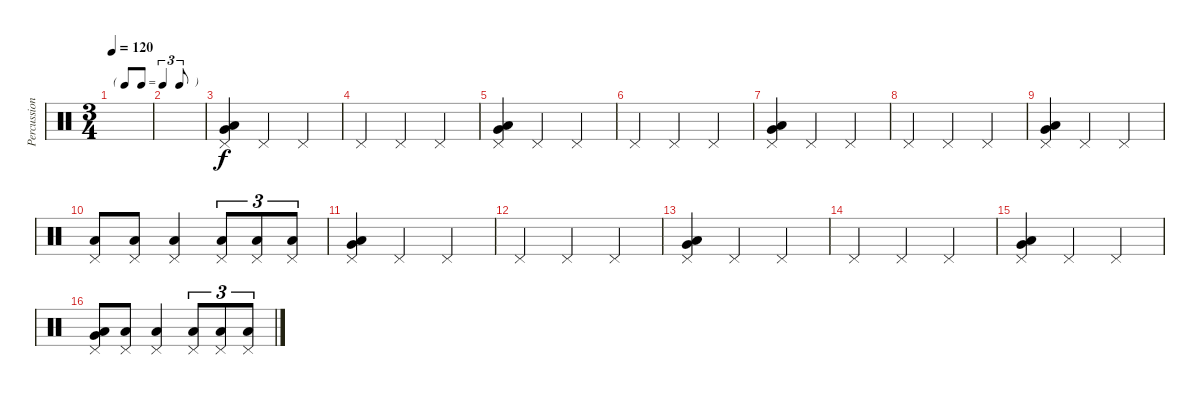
\track ("Percussions" "Percussion") {instrument percussion}
\staff {score}
\articulation defaults
\ts (3 4)
\tf triplet8th
\tempo 120
\clef neutral
\ks c
|
|
("Pedal Hi-Hat (hit)" "Low Tom (hit)" "Very Low Tom (hit)").4 "Pedal Hi-Hat (hit)".4 "Pedal Hi-Hat (hit)".4 |
"Pedal Hi-Hat (hit)".4 "Pedal Hi-Hat (hit)".4 "Pedal Hi-Hat (hit)".4 |
("Pedal Hi-Hat (hit)" "Low Tom (hit)" "Very Low Tom (hit)").4 "Pedal Hi-Hat (hit)".4 "Pedal Hi-Hat (hit)".4 |
"Pedal Hi-Hat (hit)".4 "Pedal Hi-Hat (hit)".4 "Pedal Hi-Hat (hit)".4 |
("Pedal Hi-Hat (hit)" "Low Tom (hit)" "Very Low Tom (hit)").4 "Pedal Hi-Hat (hit)".4 "Pedal Hi-Hat (hit)".4 |
"Pedal Hi-Hat (hit)".4 "Pedal Hi-Hat (hit)".4 "Pedal Hi-Hat (hit)".4 |
("Pedal Hi-Hat (hit)" "Low Tom (hit)" "Very Low Tom (hit)").4 "Pedal Hi-Hat (hit)".4 "Pedal Hi-Hat (hit)".4 |
("Pedal Hi-Hat (hit)" "Low Tom (hit)").8 ("Pedal Hi-Hat (hit)" "Low Tom (hit)").8 ("Pedal Hi-Hat (hit)" "Low Tom (hit)").4 ("Pedal Hi-Hat (hit)" "Low Tom (hit)").8{tu (3 2)} ("Pedal Hi-Hat (hit)" "Low Tom (hit)").8{tu (3 2)} ("Pedal Hi-Hat (hit)" "Low Tom (hit)").8{tu (3 2)} |
("Pedal Hi-Hat (hit)" "Low Tom (hit)" "Very Low Tom (hit)").4 "Pedal Hi-Hat (hit)".4 "Pedal Hi-Hat (hit)".4 |
"Pedal Hi-Hat (hit)".4 "Pedal Hi-Hat (hit)".4 "Pedal Hi-Hat (hit)".4 |
("Pedal Hi-Hat (hit)" "Low Tom (hit)" "Very Low Tom (hit)").4 "Pedal Hi-Hat (hit)".4 "Pedal Hi-Hat (hit)".4 |
"Pedal Hi-Hat (hit)".4 "Pedal Hi-Hat (hit)".4 "Pedal Hi-Hat (hit)".4 |
("Pedal Hi-Hat (hit)" "Low Tom (hit)" "Very Low Tom (hit)").4 "Pedal Hi-Hat (hit)".4 "Pedal Hi-Hat (hit)".4 |
("Pedal Hi-Hat (hit)" "Low Tom (hit)" "Very Low Tom (hit)").8 ("Pedal Hi-Hat (hit)" "Low Tom (hit)").8 ("Pedal Hi-Hat (hit)" "Low Tom (hit)").4 ("Pedal Hi-Hat (hit)" "Low Tom (hit)").8{tu (3 2)} ("Pedal Hi-Hat (hit)" "Low Tom (hit)").8{tu (3 2)} ("Pedal Hi-Hat (hit)" "Low Tom (hit)").8{tu (3 2)}
